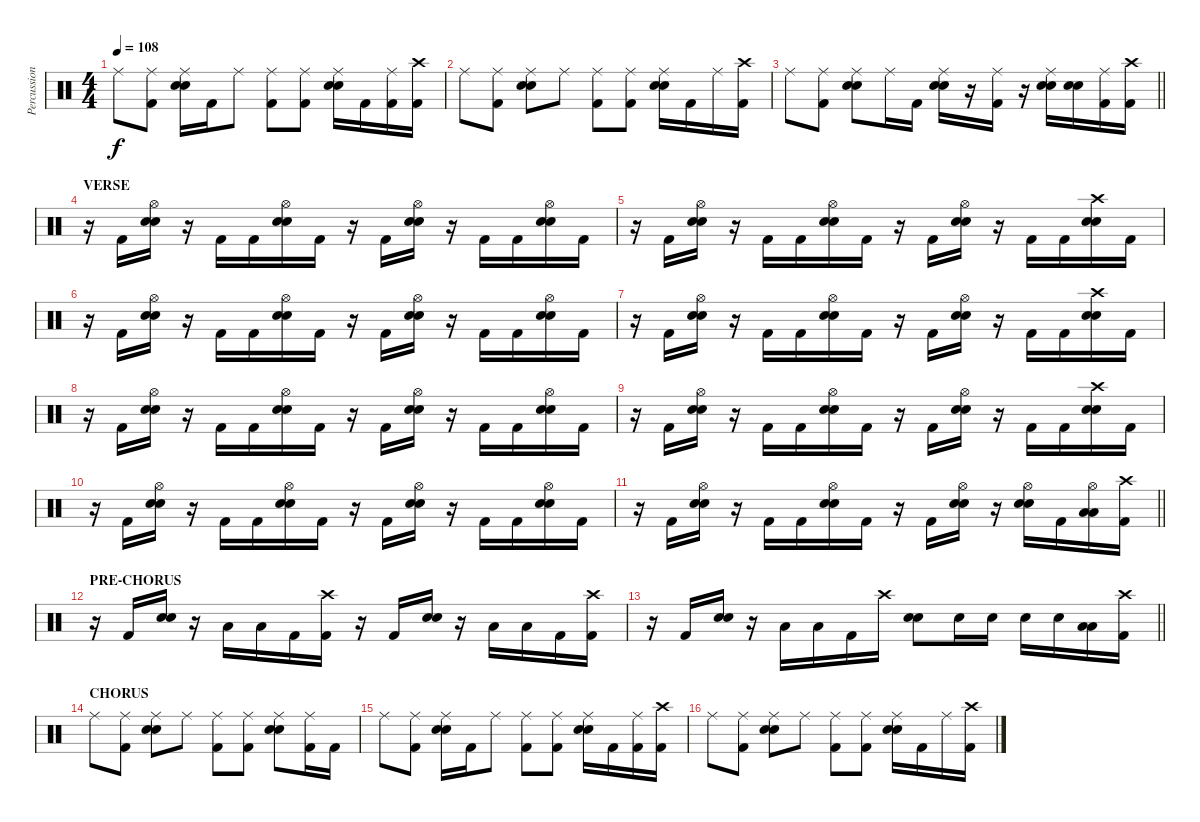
\track ("Percussion" "Percussion") {instrument percussion}
\staff {score}
\articulation defaults
\ts (4 4)
\tempo 108
\clef neutral
\ks c "Ride (middle)".8{dy f}
("Ride (middle)" "Kick (hit) 2").8 ("Ride (middle)" "Snare (hit) 2" "Electric Snare (hit)").16 "Kick (hit) 2".16 "Ride (middle)".8 ("Ride (middle)" "Kick (hit) 2").8 ("Ride (middle)" "Kick (hit) 2").8 ("Ride (middle)" "Snare (hit) 2" "Electric Snare (hit)").16 "Kick (hit) 2".16 ("Ride (middle)" "Kick (hit) 2").16 ("Crash high (hit)" "Kick (hit) 2").16 |
"Ride (middle)".8 ("Ride (middle)" "Kick (hit) 2").8 ("Ride (middle)" "Snare (hit) 2" "Electric Snare (hit)").8 "Ride (middle)".8 ("Ride (middle)" "Kick (hit) 2").8 ("Ride (middle)" "Kick (hit) 2").8 ("Ride (middle)" "Snare (hit) 2" "Electric Snare (hit)").16 "Kick (hit) 2".16 "Ride (middle)".16 ("Crash high (hit)" "Kick (hit) 2").16 |
\barLineRight lightlight "Ride (middle)".8
("Ride (middle)" "Kick (hit) 2").8 ("Ride (middle)" "Snare (hit) 2" "Electric Snare (hit)").8 "Ride (middle)".16 "Kick (hit) 2".16 ("Ride (middle)" "Snare (hit) 2" "Electric Snare (hit)").16 r.16 ("Ride (middle)" "Kick (hit) 2").16 r.16 ("Ride (middle)" "Snare (hit) 2" "Electric Snare (hit)").16 ("Snare (hit) 2" "Electric Snare (hit)").16 ("Ride (middle)" "Kick (hit) 2").16 ("Crash high (hit)" "Kick (hit) 2").16 |
\section ("" "VERSE")
r.16 "Kick (hit) 2".16 ("Hi-Hat (open)" "Snare (hit) 2" "Electric Snare (hit)").16 r.16 "Kick (hit) 2".16 "Kick (hit) 2".16 ("Hi-Hat (open)" "Snare (hit) 2" "Electric Snare (hit)").16 "Kick (hit) 2".16 r.16 "Kick (hit) 2".16 ("Hi-Hat (open)" "Snare (hit) 2" "Electric Snare (hit)").16 r.16 "Kick (hit) 2".16 "Kick (hit) 2".16 ("Hi-Hat (open)" "Snare (hit) 2" "Electric Snare (hit)").16 "Kick (hit) 2".16 |
r.16 "Kick (hit) 2".16 ("Hi-Hat (open)" "Snare (hit) 2" "Electric Snare (hit)").16 r.16 "Kick (hit) 2".16 "Kick (hit) 2".16 ("Hi-Hat (open)" "Snare (hit) 2" "Electric Snare (hit)").16 "Kick (hit) 2".16 r.16 "Kick (hit) 2".16 ("Hi-Hat (open)" "Snare (hit) 2" "Electric Snare (hit)").16 r.16 "Kick (hit) 2".16 "Kick (hit) 2".16 ("Crash high (hit)" "Snare (hit) 2" "Electric Snare (hit)").16 "Kick (hit) 2".16 |
r.16 "Kick (hit) 2".16 ("Hi-Hat (open)" "Snare (hit) 2" "Electric Snare (hit)").16 r.16 "Kick (hit) 2".16 "Kick (hit) 2".16 ("Hi-Hat (open)" "Snare (hit) 2" "Electric Snare (hit)").16 "Kick (hit) 2".16 r.16 "Kick (hit) 2".16 ("Hi-Hat (open)" "Snare (hit) 2" "Electric Snare (hit)").16 r.16 "Kick (hit) 2".16 "Kick (hit) 2".16 ("Hi-Hat (open)" "Snare (hit) 2" "Electric Snare (hit)").16 "Kick (hit) 2".16 |
r.16 "Kick (hit) 2".16 ("Hi-Hat (open)" "Snare (hit) 2" "Electric Snare (hit)").16 r.16 "Kick (hit) 2".16 "Kick (hit) 2".16 ("Hi-Hat (open)" "Snare (hit) 2" "Electric Snare (hit)").16 "Kick (hit) 2".16 r.16 "Kick (hit) 2".16 ("Hi-Hat (open)" "Snare (hit) 2" "Electric Snare (hit)").16 r.16 "Kick (hit) 2".16 "Kick (hit) 2".16 ("Crash high (hit)" "Snare (hit) 2" "Electric Snare (hit)").16 "Kick (hit) 2".16 |
r.16 "Kick (hit) 2".16 ("Hi-Hat (open)" "Snare (hit) 2" "Electric Snare (hit)").16 r.16 "Kick (hit) 2".16 "Kick (hit) 2".16 ("Hi-Hat (open)" "Snare (hit) 2" "Electric Snare (hit)").16 "Kick (hit) 2".16 r.16 "Kick (hit) 2".16 ("Hi-Hat (open)" "Snare (hit) 2" "Electric Snare (hit)").16 r.16 "Kick (hit) 2".16 "Kick (hit) 2".16 ("Hi-Hat (open)" "Snare (hit) 2" "Electric Snare (hit)").16 "Kick (hit) 2".16 |
r.16 "Kick (hit) 2".16 ("Hi-Hat (open)" "Snare (hit) 2" "Electric Snare (hit)").16 r.16 "Kick (hit) 2".16 "Kick (hit) 2".16 ("Hi-Hat (open)" "Snare (hit) 2" "Electric Snare (hit)").16 "Kick (hit) 2".16 r.16 "Kick (hit) 2".16 ("Hi-Hat (open)" "Snare (hit) 2" "Electric Snare (hit)").16 r.16 "Kick (hit) 2".16 "Kick (hit) 2".16 ("Crash high (hit)" "Snare (hit) 2" "Electric Snare (hit)").16 "Kick (hit) 2".16 |
r.16 "Kick (hit) 2".16 ("Hi-Hat (open)" "Snare (hit) 2" "Electric Snare (hit)").16 r.16 "Kick (hit) 2".16 "Kick (hit) 2".16 ("Hi-Hat (open)" "Snare (hit) 2" "Electric Snare (hit)").16 "Kick (hit) 2".16 r.16 "Kick (hit) 2".16 ("Hi-Hat (open)" "Snare (hit) 2" "Electric Snare (hit)").16 r.16 "Kick (hit) 2".16 "Kick (hit) 2".16 ("Hi-Hat (open)" "Snare (hit) 2" "Electric Snare (hit)").16 "Kick (hit) 2".16 |
\barLineRight lightlight
r.16 "Kick (hit) 2".16 ("Hi-Hat (open)" "Snare (hit) 2" "Electric Snare (hit)").16 r.16 "Kick (hit) 2".16 "Kick (hit) 2".16 ("Hi-Hat (open)" "Snare (hit) 2" "Electric Snare (hit)").16 "Kick (hit) 2".16 r.16 "Kick (hit) 2".16 ("Hi-Hat (open)" "Snare (hit) 2" "Electric Snare (hit)").16 r.16 ("Hi-Hat (open)" "Snare (hit) 2" "Electric Snare (hit)").16 "Kick (hit) 2".16 ("Hi-Hat (open)" "Low Floor Tom (hit)" "Low Floor Tom (hit)").16 ("Crash high (hit)" "Kick (hit) 2").16 |
\section ("" "PRE-CHORUS")
r.16 "Kick (hit) 2".16 ("Snare (hit) 2" "Electric Snare (hit)").16 r.16 "Low Tom (hit)".16 "Low Floor Tom (hit)".16 "Kick (hit) 2".16 ("Crash high (hit)" "Kick (hit) 2").16 r.16 "Kick (hit) 2".16 ("Snare (hit) 2" "Electric Snare (hit)").16 r.16 "Low Tom (hit)".16 "Low Floor Tom (hit)".16 "Kick (hit) 2".16 ("Crash high (hit)" "Kick (hit) 2").16 |
\barLineRight lightlight
r.16 "Kick (hit) 2".16 ("Snare (hit) 2" "Electric Snare (hit)").16 r.16 "Low Tom (hit)".16 "Low Floor Tom (hit)".16 "Kick (hit) 2".16 "Crash high (hit)".16 ("Snare (hit) 2" "Electric Snare (hit)").8 "Electric Snare (hit)".16 "Electric Snare (hit)".16 "Electric Snare (hit)".16 "Electric Snare (hit)".16 ("Low Tom (hit)" "Low Tom (hit)").16 ("Crash high (hit)" "Kick (hit) 2").16 |
\section ("" "CHORUS")
"Ride (middle)".8 ("Ride (middle)" "Kick (hit) 2").8 ("Ride (middle)" "Snare (hit) 2" "Electric Snare (hit)").8 "Ride (middle)".8 ("Ride (middle)" "Kick (hit) 2").8 ("Ride (middle)" "Kick (hit) 2").8 ("Ride (middle)" "Snare (hit) 2" "Electric Snare (hit)").8 ("Ride (middle)" "Kick (hit) 2").16 "Kick (hit) 2".16 |
"Ride (middle)".8 ("Ride (middle)" "Kick (hit) 2").8 ("Ride (middle)" "Snare (hit) 2" "Electric Snare (hit)").16 "Kick (hit) 2".16 "Ride (middle)".8 ("Ride (middle)" "Kick (hit) 2").8 ("Ride (middle)" "Kick (hit) 2").8 ("Ride (middle)" "Snare (hit) 2" "Electric Snare (hit)").16 "Kick (hit) 2".16 ("Ride (middle)" "Kick (hit) 2").16 ("Crash high (hit)" "Kick (hit) 2").16 |
"Ride (middle)".8 ("Ride (middle)" "Kick (hit) 2").8 ("Ride (middle)" "Snare (hit) 2" "Electric Snare (hit)").8 "Ride (middle)".8 ("Ride (middle)" "Kick (hit) 2").8 ("Ride (middle)" "Kick (hit) 2").8 ("Ride (middle)" "Snare (hit) 2" "Electric Snare (hit)").16 "Kick (hit) 2".16 "Ride (middle)".16 ("Crash high (hit)" "Kick (hit) 2").16
